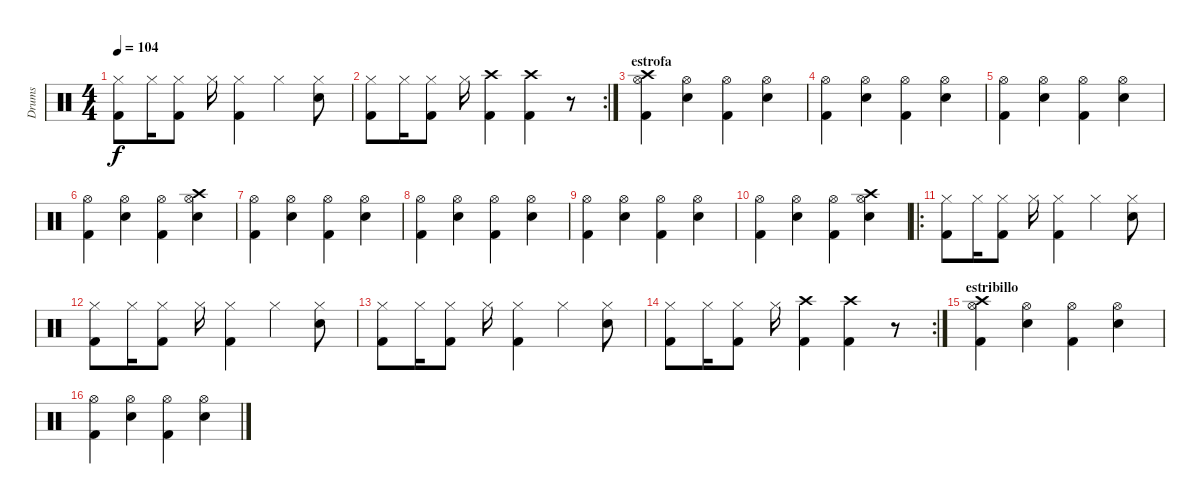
\track ("Drums" "Drums") {instrument percussion}
\staff {score}
\articulation defaults
\ts (4 4)
\tempo 104
\clef neutral
\ks c
("Kick (hit) 2" "Hi-Hat (closed)").8{dy f} "Hi-Hat (closed)".16 ("Kick (hit) 2" "Hi-Hat (closed)").8 "Hi-Hat (closed)".16 ("Kick (hit) 2" "Hi-Hat (closed)").4 "Hi-Hat (closed)".4 ("Snare (hit) 2" "Hi-Hat (closed)").8 |
\rc 2
("Kick (hit) 2" "Hi-Hat (closed)").8 "Hi-Hat (closed)".16 ("Kick (hit) 2" "Hi-Hat (closed)").8 "Hi-Hat (closed)".16 ("Kick (hit) 2" "Crash high (hit)").4 ("Kick (hit) 2" "Crash high (hit)").4 r.8 |
\section ("" "estrofa")
("Kick (hit) 2" "Hi-Hat (open)" "Crash high (hit)").4 ("Snare (hit) 2" "Hi-Hat (open)").4 ("Kick (hit) 2" "Hi-Hat (open)").4 ("Snare (hit) 2" "Hi-Hat (open)").4 |
("Kick (hit) 2" "Hi-Hat (open)").4 ("Snare (hit) 2" "Hi-Hat (open)").4 ("Kick (hit) 2" "Hi-Hat (open)").4 ("Snare (hit) 2" "Hi-Hat (open)").4 |
("Kick (hit) 2" "Hi-Hat (open)").4 ("Snare (hit) 2" "Hi-Hat (open)").4 ("Kick (hit) 2" "Hi-Hat (open)").4 ("Snare (hit) 2" "Hi-Hat (open)").4 |
("Kick (hit) 2" "Hi-Hat (open)").4 ("Snare (hit) 2" "Hi-Hat (open)").4 ("Kick (hit) 2" "Hi-Hat (open)").4 ("Snare (hit) 2" "Hi-Hat (open)" "Crash high (hit)").4 |
("Kick (hit) 2" "Hi-Hat (open)").4 ("Snare (hit) 2" "Hi-Hat (open)").4 ("Kick (hit) 2" "Hi-Hat (open)").4 ("Snare (hit) 2" "Hi-Hat (open)").4 |
("Kick (hit) 2" "Hi-Hat (open)").4 ("Snare (hit) 2" "Hi-Hat (open)").4 ("Kick (hit) 2" "Hi-Hat (open)").4 ("Snare (hit) 2" "Hi-Hat (open)").4 |
("Kick (hit) 2" "Hi-Hat (open)").4 ("Snare (hit) 2" "Hi-Hat (open)").4 ("Kick (hit) 2" "Hi-Hat (open)").4 ("Snare (hit) 2" "Hi-Hat (open)").4 |
("Kick (hit) 2" "Hi-Hat (open)").4 ("Snare (hit) 2" "Hi-Hat (open)").4 ("Kick (hit) 2" "Hi-Hat (open)").4 ("Snare (hit) 2" "Hi-Hat (open)" "Crash high (hit)").4 |
\ro
("Kick (hit) 2" "Hi-Hat (closed)").8 "Hi-Hat (closed)".16 ("Kick (hit) 2" "Hi-Hat (closed)").8 "Hi-Hat (closed)".16 ("Kick (hit) 2" "Hi-Hat (closed)").4 "Hi-Hat (closed)".4 ("Snare (hit) 2" "Hi-Hat (closed)").8 |
("Kick (hit) 2" "Hi-Hat (closed)").8 "Hi-Hat (closed)".16 ("Kick (hit) 2" "Hi-Hat (closed)").8 "Hi-Hat (closed)".16 ("Kick (hit) 2" "Hi-Hat (closed)").4 "Hi-Hat (closed)".4 ("Snare (hit) 2" "Hi-Hat (closed)").8 |
("Kick (hit) 2" "Hi-Hat (closed)").8 "Hi-Hat (closed)".16 ("Kick (hit) 2" "Hi-Hat (closed)").8 "Hi-Hat (closed)".16 ("Kick (hit) 2" "Hi-Hat (closed)").4 "Hi-Hat (closed)".4 ("Snare (hit) 2" "Hi-Hat (closed)").8 |
\rc 2
("Kick (hit) 2" "Hi-Hat (closed)").8 "Hi-Hat (closed)".16 ("Kick (hit) 2" "Hi-Hat (closed)").8 "Hi-Hat (closed)".16 ("Kick (hit) 2" "Crash high (hit)").4 ("Kick (hit) 2" "Crash high (hit)").4 r.8 |
\section ("" "estribillo")
("Kick (hit) 2" "Hi-Hat (open)" "Crash high (hit)").4 ("Snare (hit) 2" "Hi-Hat (open)").4 ("Kick (hit) 2" "Hi-Hat (open)").4 ("Snare (hit) 2" "Hi-Hat (open)").4 |
("Kick (hit) 2" "Hi-Hat (open)").4 ("Snare (hit) 2" "Hi-Hat (open)").4 ("Kick (hit) 2" "Hi-Hat (open)").4 ("Snare (hit) 2" "Hi-Hat (open)").4
